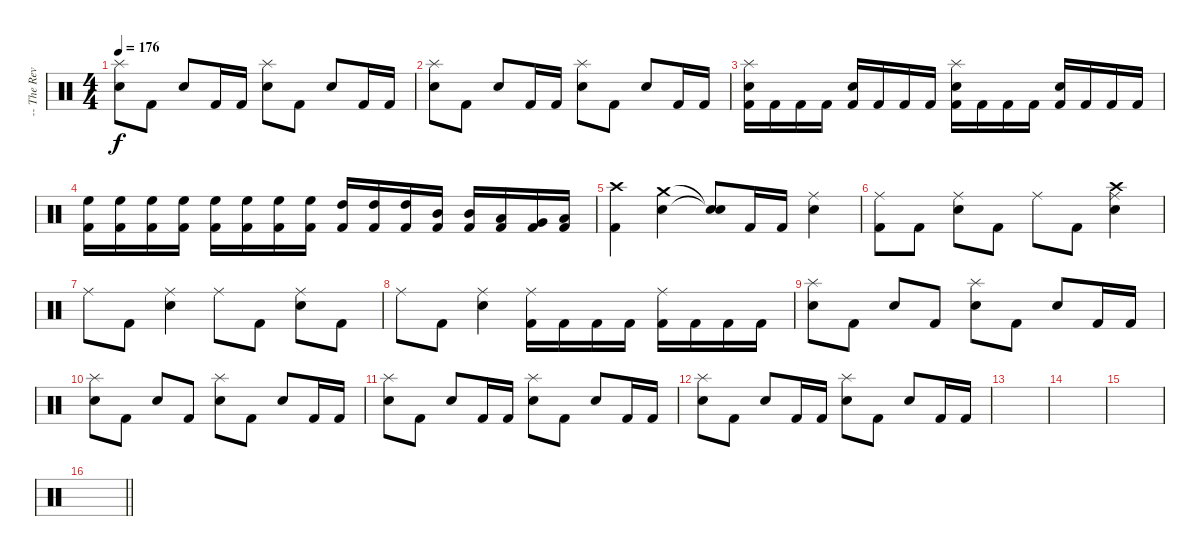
\track ("-- The Reverend - Drums" "-- The Rev") {instrument percussion}
\staff {score}
\articulation defaults
\ts (4 4)
\tempo 176
\clef neutral
\ks c
("Splash (hit)" "Electric Snare (hit)").8{dy f} "Kick (hit) 2".8 "Electric Snare (hit)".8 "Kick (hit) 2".16 "Kick (hit) 2".16 ("Splash (hit)" "Electric Snare (hit)").8 "Kick (hit) 2".8 "Electric Snare (hit)".8 "Kick (hit) 2".16 "Kick (hit) 2".16 |
("Splash (hit)" "Electric Snare (hit)").8 "Kick (hit) 2".8 "Electric Snare (hit)".8 "Kick (hit) 2".16 "Kick (hit) 2".16 ("Splash (hit)" "Electric Snare (hit)").8 "Kick (hit) 2".8 "Electric Snare (hit)".8 "Kick (hit) 2".16 "Kick (hit) 2".16 |
("Splash (hit)" "Electric Snare (hit)" "Kick (hit) 2").16 "Kick (hit) 2".16 "Kick (hit) 2".16 "Kick (hit) 2".16 ("Electric Snare (hit)" "Kick (hit) 2").16 "Kick (hit) 2".16 "Kick (hit) 2".16 "Kick (hit) 2".16 ("Splash (hit)" "Electric Snare (hit)" "Kick (hit) 2").16 "Kick (hit) 2".16 "Kick (hit) 2".16 "Kick (hit) 2".16 ("Electric Snare (hit)" "Kick (hit) 2").16 "Kick (hit) 2".16 "Kick (hit) 2".16 "Kick (hit) 2".16 |
("High Floor Tom (hit)" "Kick (hit) 2").16 ("High Floor Tom (hit)" "Kick (hit) 2").16 ("High Floor Tom (hit)" "Kick (hit) 2").16 ("High Floor Tom (hit)" "Kick (hit) 2").16 ("High Floor Tom (hit)" "Kick (hit) 2").16 ("High Floor Tom (hit)" "Kick (hit) 2").16 ("High Floor Tom (hit)" "Kick (hit) 2").16 ("High Floor Tom (hit)" "Kick (hit) 2").16 ("High Tom (hit)" "Kick (hit) 2").16 ("High Tom (hit)" "Kick (hit) 2").16 ("High Tom (hit)" "Kick (hit) 2").16 ("Mid Tom (hit)" "Kick (hit) 2").16 ("Mid Tom (hit)" "Kick (hit) 2").16 ("Low Tom (hit)" "Kick (hit) 2").16 ("Very Low Tom (hit)" "Kick (hit) 2").16 ("Low Floor Tom (hit)" "Kick (hit) 2").16 |
("Crash high (hit)" "Kick (hit) 2").4 ("Crash medium (hit)" "Snare (hit) 2").4 ("Snare (hit)"{t} "Snare (hit)"{t}).8 "Kick (hit) 2".16 "Kick (hit) 2".16 ("Ride (middle)" "Snare (hit) 2").4 |
("Ride (middle)" "Kick (hit) 2").8 "Kick (hit) 2".8 ("Ride (middle)" "Snare (hit) 2").8 "Kick (hit) 2".8 "Ride (middle)".8 "Kick (hit) 2".8 ("Crash high (hit)" "Ride (middle)" "Snare (hit) 2").4 |
"Ride (middle)".8 "Kick (hit) 2".8 ("Ride (middle)" "Snare (hit) 2").4 "Ride (middle)".8 "Kick (hit) 2".8 ("Ride (middle)" "Snare (hit) 2").8 "Kick (hit) 2".8 |
"Ride (middle)".8 "Kick (hit) 2".8 ("Ride (middle)" "Snare (hit) 2").4 ("Ride (middle)" "Kick (hit) 2").16 "Kick (hit) 2".16 "Kick (hit) 2".16 "Kick (hit) 2".16 ("Ride (middle)" "Kick (hit) 2").16 "Kick (hit) 2".16 "Kick (hit) 2".16 "Kick (hit) 2".16 |
("Splash (hit)" "Electric Snare (hit)").8 "Kick (hit) 2".8 "Electric Snare (hit)".8 "Kick (hit) 2".8 ("Splash (hit)" "Electric Snare (hit)").8 "Kick (hit) 2".8 "Electric Snare (hit)".8 "Kick (hit) 2".16 "Kick (hit) 2".16 |
("Splash (hit)" "Electric Snare (hit)").8 "Kick (hit) 2".8 "Electric Snare (hit)".8 "Kick (hit) 2".8 ("Splash (hit)" "Electric Snare (hit)").8 "Kick (hit) 2".8 "Electric Snare (hit)".8 "Kick (hit) 2".16 "Kick (hit) 2".16 |
("Splash (hit)" "Electric Snare (hit)").8 "Kick (hit) 2".8 "Electric Snare (hit)".8 "Kick (hit) 2".16 "Kick (hit) 2".16 ("Splash (hit)" "Electric Snare (hit)").8 "Kick (hit) 2".8 "Electric Snare (hit)".8 "Kick (hit) 2".16 "Kick (hit) 2".16 |
("Splash (hit)" "Electric Snare (hit)").8 "Kick (hit) 2".8 "Electric Snare (hit)".8 "Kick (hit) 2".16 "Kick (hit) 2".16 ("Splash (hit)" "Electric Snare (hit)").8 "Kick (hit) 2".8 "Electric Snare (hit)".8 "Kick (hit) 2".16 "Kick (hit) 2".16 |
|
|
|
\barLineRight lightlight
